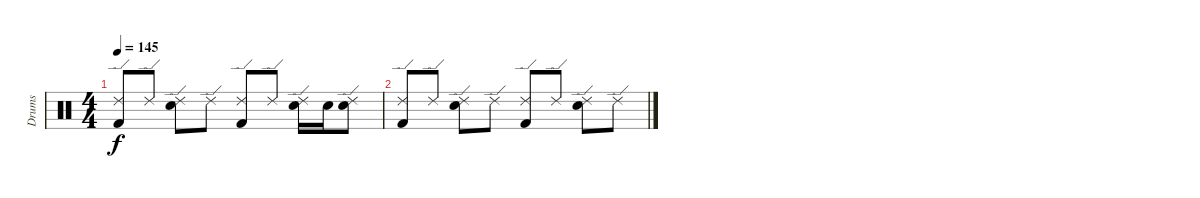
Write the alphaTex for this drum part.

\track ("Drums" "Drums") {instrument percussion}
\staff {score}
\articulation defaults
\ts (4 4)
\tempo 145
\clef neutral
\ks c
("Kick (hit) 2" "Ride (edge) 2").8{dy f} "Ride (edge) 2".8 ("Electric Snare (hit)" "Ride (edge) 2").8 "Ride (edge) 2".8 ("Kick (hit) 2" "Ride (edge) 2").8 "Ride (edge) 2".8 ("Electric Snare (hit)" "Ride (edge) 2").16 "Electric Snare (hit)".16 ("Electric Snare (hit)" "Ride (edge) 2").8 |
("Kick (hit) 2" "Ride (edge) 2").8 "Ride (edge) 2".8 ("Electric Snare (hit)" "Ride (edge) 2").8 "Ride (edge) 2".8 ("Kick (hit) 2" "Ride (edge) 2").8 "Ride (edge) 2".8 ("Electric Snare (hit)" "Ride (edge) 2").8 "Ride (edge) 2".8
